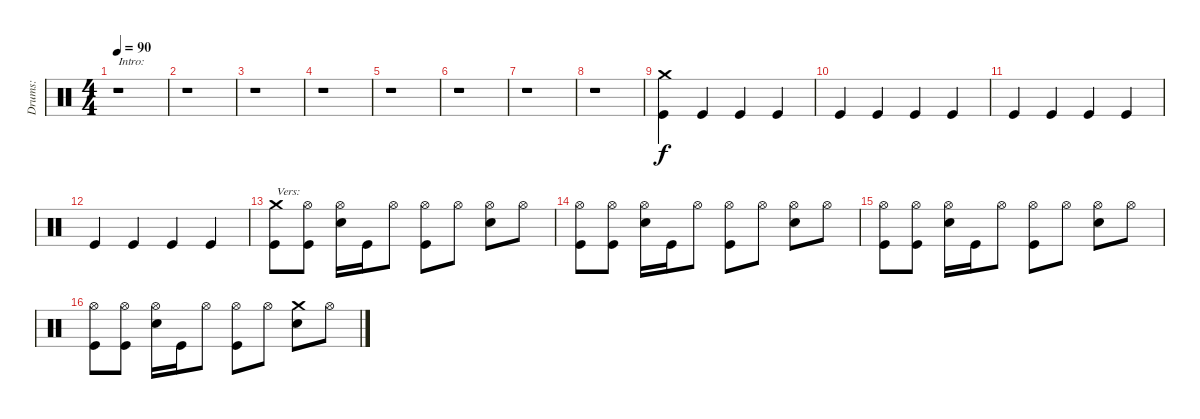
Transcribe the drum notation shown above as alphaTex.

\track ("Drums:" "Drums:") {instrument percussion}
\staff {score}
\articulation defaults
\ts (4 4)
\tempo 90
\clef neutral
\ks c
r.1{txt "Intro:" dy f} |
r.1 |
r.1 |
r.1 |
r.1 |
r.1 |
r.1 |
r.1 |
("Crash medium (hit)" "Kick (hit)").4 "Kick (hit)".4 "Kick (hit)".4 "Kick (hit)".4 |
"Kick (hit)".4 "Kick (hit)".4 "Kick (hit)".4 "Kick (hit)".4 |
"Kick (hit)".4 "Kick (hit)".4 "Kick (hit)".4 "Kick (hit)".4 |
"Kick (hit)".4 "Kick (hit)".4 "Kick (hit)".4 "Kick (hit)".4 |
("Crash medium (hit)" "Kick (hit)").8{txt "Vers:"} ("Hi-Hat (open)" "Kick (hit)").8 ("Hi-Hat (open)" "Snare (hit) 2").16 "Kick (hit)".16 "Hi-Hat (open)".8 ("Hi-Hat (open)" "Kick (hit)").8 "Hi-Hat (open)".8 ("Hi-Hat (open)" "Snare (hit) 2").8 "Hi-Hat (open)".8 |
("Hi-Hat (open)" "Kick (hit)").8 ("Hi-Hat (open)" "Kick (hit)").8 ("Hi-Hat (open)" "Snare (hit) 2").16 "Kick (hit)".16 "Hi-Hat (open)".8 ("Hi-Hat (open)" "Kick (hit)").8 "Hi-Hat (open)".8 ("Hi-Hat (open)" "Snare (hit) 2").8 "Hi-Hat (open)".8 |
("Hi-Hat (open)" "Kick (hit)").8 ("Hi-Hat (open)" "Kick (hit)").8 ("Hi-Hat (open)" "Snare (hit) 2").16 "Kick (hit)".16 "Hi-Hat (open)".8 ("Hi-Hat (open)" "Kick (hit)").8 "Hi-Hat (open)".8 ("Hi-Hat (open)" "Snare (hit) 2").8 "Hi-Hat (open)".8 |
("Hi-Hat (open)" "Kick (hit)").8 ("Hi-Hat (open)" "Kick (hit)").8 ("Hi-Hat (open)" "Snare (hit) 2").16 "Kick (hit)".16 "Hi-Hat (open)".8 ("Hi-Hat (open)" "Kick (hit)").8 "Hi-Hat (open)".8 ("Crash medium (hit)" "Snare (hit) 2").8 "Hi-Hat (open)".8
